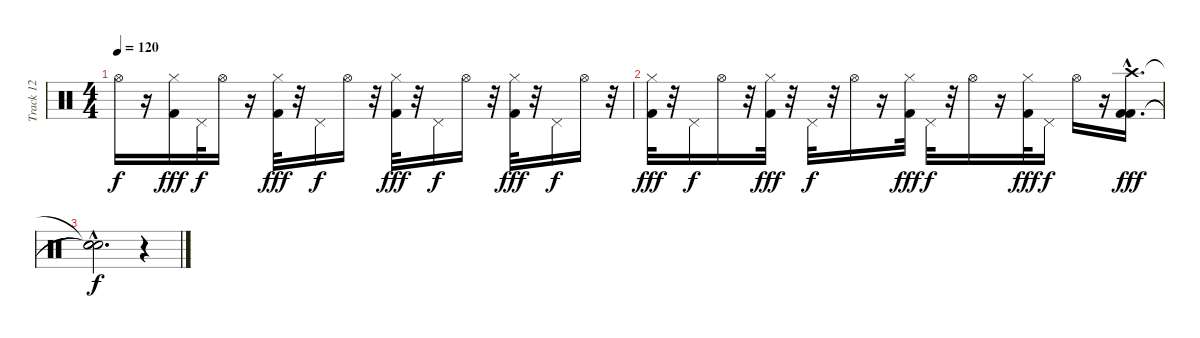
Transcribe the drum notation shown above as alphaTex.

\track ("Track 12" "Track 12") {instrument percussion}
\staff {score}
\articulation defaults
\ts (4 4)
\tempo 120
\clef neutral
\ks c "Hi-Hat (open)".16{dy f}
r.16 ("Hi-Hat (closed)" "Kick (hit) 2").16{dy fff} "Pedal Hi-Hat (hit)".32{dy f} "Hi-Hat (open)".16 r.16 ("Hi-Hat (closed)" "Kick (hit) 2").32{dy fff} r.32 "Pedal Hi-Hat (hit)".16{dy f} "Hi-Hat (open)".16 r.32 ("Hi-Hat (closed)" "Kick (hit) 2").32{dy fff} r.32 "Pedal Hi-Hat (hit)".16{dy f} "Hi-Hat (open)".16 r.32 ("Hi-Hat (closed)" "Kick (hit) 2").32{dy fff} r.32 "Pedal Hi-Hat (hit)".16{dy f} "Hi-Hat (open)".16 r.32 |
("Hi-Hat (closed)" "Kick (hit) 2").32{dy fff} r.32 "Pedal Hi-Hat (hit)".16{dy f} "Hi-Hat (open)".16 r.32 ("Hi-Hat (closed)" "Kick (hit) 2").32{dy fff} r.32 "Pedal Hi-Hat (hit)".32{dy f} r.32 "Hi-Hat (open)".16 r.16 ("Hi-Hat (closed)" "Kick (hit) 2").32{dy fff} "Pedal Hi-Hat (hit)".32{dy f} r.32 "Hi-Hat (open)".16 r.16 ("Hi-Hat (closed)" "Kick (hit) 2").32{dy fff} "Pedal Hi-Hat (hit)".16{dy f} "Hi-Hat (open)".16 r.16 ("Crash high (hit)"{hac} "Kick (hit) 2"{hac} "Kick (hit) 2"{hac}).16{d dy fff} |
("Snare (hit)"{hac t} "Snare (hit)"{hac t} "Snare (hit)"{hac t}).2{d dy f} r.4
